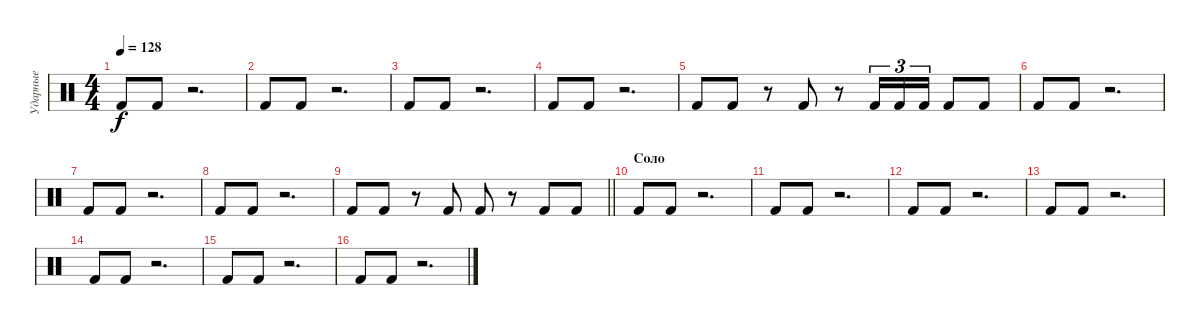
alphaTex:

\track ("Ударные" "Ударные") {instrument percussion}
\staff {score}
\articulation defaults
\ts (4 4)
\tempo 128
\clef neutral
\ks c "Kick (hit) 2".8{dy f} "Kick (hit) 2".8
r.2{d} |
"Kick (hit) 2".8 "Kick (hit) 2".8 r.2{d} |
"Kick (hit) 2".8 "Kick (hit) 2".8 r.2{d} |
"Kick (hit) 2".8 "Kick (hit) 2".8 r.2{d} |
"Kick (hit) 2".8 "Kick (hit) 2".8 r.8 "Kick (hit) 2".8 r.8 "Kick (hit) 2".16{tu (3 2)} "Kick (hit) 2".16{tu (3 2)} "Kick (hit) 2".16{tu (3 2)} "Kick (hit) 2".8 "Kick (hit) 2".8 |
"Kick (hit) 2".8 "Kick (hit) 2".8 r.2{d} |
"Kick (hit) 2".8 "Kick (hit) 2".8 r.2{d} |
"Kick (hit) 2".8 "Kick (hit) 2".8 r.2{d} |
\barLineRight lightlight "Kick (hit) 2".8 "Kick (hit) 2".8
r.8 "Kick (hit) 2".8 "Kick (hit) 2".8 r.8 "Kick (hit) 2".8 "Kick (hit) 2".8 |
\section ("" "Соло")
"Kick (hit) 2".8 "Kick (hit) 2".8 r.2{d} |
"Kick (hit) 2".8 "Kick (hit) 2".8 r.2{d} |
"Kick (hit) 2".8 "Kick (hit) 2".8 r.2{d} |
"Kick (hit) 2".8 "Kick (hit) 2".8 r.2{d} |
"Kick (hit) 2".8 "Kick (hit) 2".8 r.2{d} |
"Kick (hit) 2".8 "Kick (hit) 2".8 r.2{d} |
"Kick (hit) 2".8 "Kick (hit) 2".8 r.2{d}
